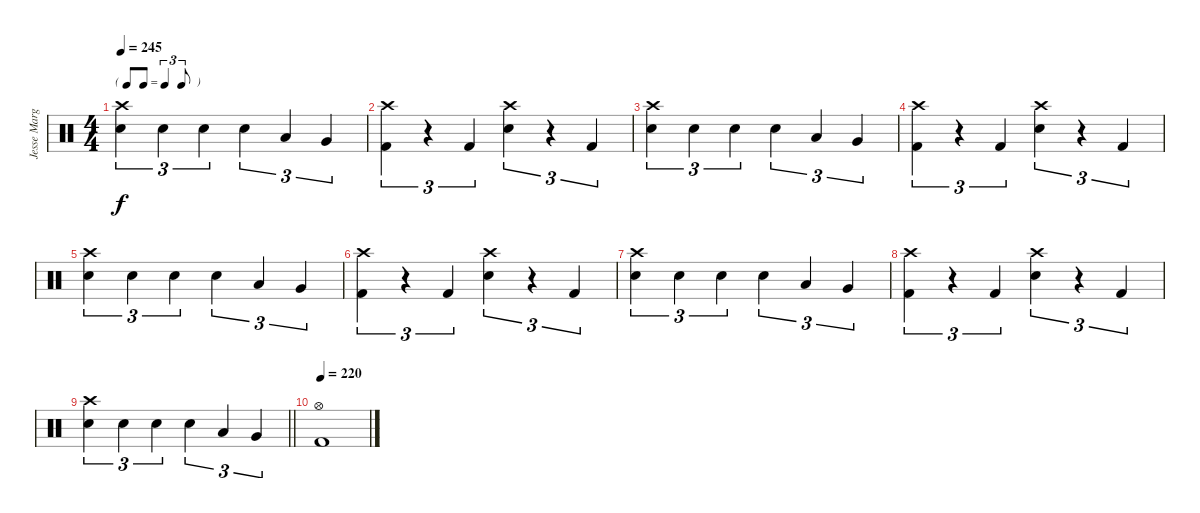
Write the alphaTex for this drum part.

\track ("Jesse Margera" "Jesse Marg") {instrument percussion}
\staff {score}
\articulation defaults
\ts (4 4)
\tf triplet8th
\tempo 245
\clef neutral
\ks c
("Crash high (hit)" "Electric Snare (hit)").4{tu (3 2) dy f} "Electric Snare (hit)".4{tu (3 2)} "Electric Snare (hit)".4{tu (3 2)} "Electric Snare (hit)".4{tu (3 2)} "Low Tom (hit)".4{tu (3 2)} "Very Low Tom (hit)".4{tu (3 2)} |
("Crash high (hit)" "Kick (hit) 2").4{tu (3 2)} r.4{tu (3 2)} "Kick (hit) 2".4{tu (3 2)} ("Crash high (hit)" "Electric Snare (hit)").4{tu (3 2)} r.4{tu (3 2)} "Kick (hit) 2".4{tu (3 2)} |
("Crash high (hit)" "Electric Snare (hit)").4{tu (3 2)} "Electric Snare (hit)".4{tu (3 2)} "Electric Snare (hit)".4{tu (3 2)} "Electric Snare (hit)".4{tu (3 2)} "Low Tom (hit)".4{tu (3 2)} "Very Low Tom (hit)".4{tu (3 2)} |
("Crash high (hit)" "Kick (hit) 2").4{tu (3 2)} r.4{tu (3 2)} "Kick (hit) 2".4{tu (3 2)} ("Crash high (hit)" "Electric Snare (hit)").4{tu (3 2)} r.4{tu (3 2)} "Kick (hit) 2".4{tu (3 2)} |
("Crash high (hit)" "Electric Snare (hit)").4{tu (3 2)} "Electric Snare (hit)".4{tu (3 2)} "Electric Snare (hit)".4{tu (3 2)} "Electric Snare (hit)".4{tu (3 2)} "Low Tom (hit)".4{tu (3 2)} "Very Low Tom (hit)".4{tu (3 2)} |
("Crash high (hit)" "Kick (hit) 2").4{tu (3 2)} r.4{tu (3 2)} "Kick (hit) 2".4{tu (3 2)} ("Crash high (hit)" "Electric Snare (hit)").4{tu (3 2)} r.4{tu (3 2)} "Kick (hit) 2".4{tu (3 2)} |
("Crash high (hit)" "Electric Snare (hit)").4{tu (3 2)} "Electric Snare (hit)".4{tu (3 2)} "Electric Snare (hit)".4{tu (3 2)} "Electric Snare (hit)".4{tu (3 2)} "Low Tom (hit)".4{tu (3 2)} "Very Low Tom (hit)".4{tu (3 2)} |
("Crash high (hit)" "Kick (hit) 2").4{tu (3 2)} r.4{tu (3 2)} "Kick (hit) 2".4{tu (3 2)} ("Crash high (hit)" "Electric Snare (hit)").4{tu (3 2)} r.4{tu (3 2)} "Kick (hit) 2".4{tu (3 2)} |
\barLineRight lightlight
("Crash high (hit)" "Electric Snare (hit)").4{tu (3 2)} "Electric Snare (hit)".4{tu (3 2)} "Electric Snare (hit)".4{tu (3 2)} "Electric Snare (hit)".4{tu (3 2)} "Low Tom (hit)".4{tu (3 2)} "Very Low Tom (hit)".4{tu (3 2)} |
\section ("" "")
\tempo 220
("Hi-Hat (open)" "Kick (hit) 2").1
